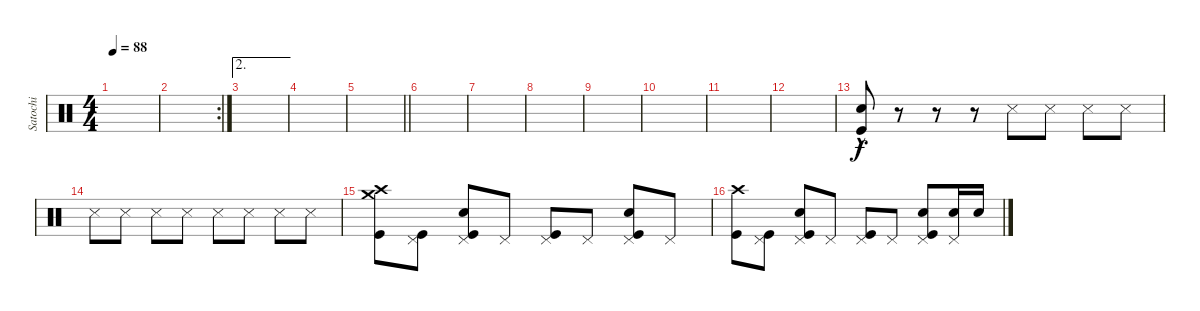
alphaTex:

\track ("Satochi" "Satochi") {instrument percussion}
\staff {score}
\articulation defaults
\ts (4 4)
\tempo 88
\clef neutral
\ks c
|
\rc 2
|
\ae 2
|
|
\barLineRight lightlight
|
|
|
|
|
|
|
|
("Snare (hit) 2"{hac} "Kick (hit)").8 r.8 r.8 r.8 "Snare (side stick) 3".8{dy f} "Snare (side stick) 3".8 "Snare (side stick) 3".8 "Snare (side stick) 3".8 |
"Snare (side stick) 3".8 "Snare (side stick) 3".8 "Snare (side stick) 3".8 "Snare (side stick) 3".8 "Snare (side stick) 3".8 "Snare (side stick) 3".8 "Snare (side stick) 3".8 "Snare (side stick) 3".8 |
("Crash medium (hit)" "Crash high (hit)" "Kick (hit)").8 ("Pedal Hi-Hat (hit)" "Kick (hit)").8 ("Pedal Hi-Hat (hit)" "Snare (hit) 2" "Kick (hit)").8 "Pedal Hi-Hat (hit)".8 ("Pedal Hi-Hat (hit)" "Kick (hit)").8 "Pedal Hi-Hat (hit)".8 ("Pedal Hi-Hat (hit)" "Snare (hit) 2" "Kick (hit)").8 "Pedal Hi-Hat (hit)".8 |
("Crash high (hit)" "Kick (hit)").8 ("Pedal Hi-Hat (hit)" "Kick (hit)").8 ("Pedal Hi-Hat (hit)" "Snare (hit) 2" "Kick (hit)").8 "Pedal Hi-Hat (hit)".8 ("Pedal Hi-Hat (hit)" "Kick (hit)").8 "Pedal Hi-Hat (hit)".8 ("Pedal Hi-Hat (hit)" "Snare (hit) 2" "Kick (hit)").8 ("Pedal Hi-Hat (hit)" "Snare (hit) 2").16 "Snare (hit) 2".16
